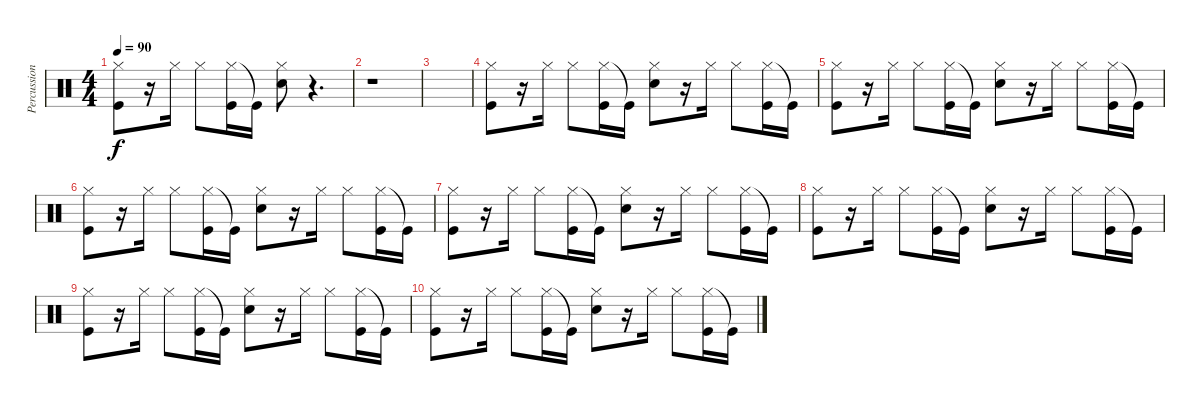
\track ("Percussion" "Percussion") {instrument percussion}
\staff {score}
\articulation defaults
\ts (4 4)
\tempo 90
\clef neutral
\ks c
("Kick (hit)" "Hi-Hat (closed)").8{dy f} r.16 "Hi-Hat (closed)".16 "Hi-Hat (closed)".8 ("Hi-Hat (closed)" "Kick (hit)").16 "Kick (hit)"{t}.16 ("Hi-Hat (closed)" "Hand Clap (hit)").8 r.4{d} |
r.1 |
|
("Hi-Hat (closed)" "Kick (hit)").8 r.16 "Hi-Hat (closed)".16 "Hi-Hat (closed)".8 ("Hi-Hat (closed)" "Kick (hit)").16 "Kick (hit)"{t}.16 ("Hi-Hat (closed)" "Hand Clap (hit)").8 r.16 "Hi-Hat (closed)".16 "Hi-Hat (closed)".8 ("Hi-Hat (closed)" "Kick (hit)").16 "Kick (hit)"{t}.16 |
("Kick (hit)" "Hi-Hat (closed)").8 r.16 "Hi-Hat (closed)".16 "Hi-Hat (closed)".8 ("Hi-Hat (closed)" "Kick (hit)").16 "Kick (hit)"{t}.16 ("Hi-Hat (closed)" "Hand Clap (hit)").8 r.16 "Hi-Hat (closed)".16 "Hi-Hat (closed)".8 ("Hi-Hat (closed)" "Kick (hit)").16 "Kick (hit)"{t}.16 |
("Kick (hit)" "Hi-Hat (closed)").8 r.16 "Hi-Hat (closed)".16 "Hi-Hat (closed)".8 ("Hi-Hat (closed)" "Kick (hit)").16 "Kick (hit)"{t}.16 ("Hi-Hat (closed)" "Hand Clap (hit)").8 r.16 "Hi-Hat (closed)".16 "Hi-Hat (closed)".8 ("Hi-Hat (closed)" "Kick (hit)").16 "Kick (hit)"{t}.16 |
("Hi-Hat (closed)" "Kick (hit)").8 r.16 "Hi-Hat (closed)".16 "Hi-Hat (closed)".8 ("Hi-Hat (closed)" "Kick (hit)").16 "Kick (hit)"{t}.16 ("Hi-Hat (closed)" "Hand Clap (hit)").8 r.16 "Hi-Hat (closed)".16 "Hi-Hat (closed)".8 ("Hi-Hat (closed)" "Kick (hit)").16 "Kick (hit)"{t}.16 |
("Kick (hit)" "Hi-Hat (closed)").8 r.16 "Hi-Hat (closed)".16 "Hi-Hat (closed)".8 ("Hi-Hat (closed)" "Kick (hit)").16 "Kick (hit)"{t}.16 ("Hi-Hat (closed)" "Hand Clap (hit)").8 r.16 "Hi-Hat (closed)".16 "Hi-Hat (closed)".8 ("Hi-Hat (closed)" "Kick (hit)").16 "Kick (hit)"{t}.16 |
("Hi-Hat (closed)" "Kick (hit)").8 r.16 "Hi-Hat (closed)".16 "Hi-Hat (closed)".8 ("Hi-Hat (closed)" "Kick (hit)").16 "Kick (hit)"{t}.16 ("Hi-Hat (closed)" "Hand Clap (hit)").8 r.16 "Hi-Hat (closed)".16 "Hi-Hat (closed)".8 ("Hi-Hat (closed)" "Kick (hit)").16 "Kick (hit)"{t}.16 |
("Kick (hit)" "Hi-Hat (closed)").8 r.16 "Hi-Hat (closed)".16 "Hi-Hat (closed)".8 ("Hi-Hat (closed)" "Kick (hit)").16 "Kick (hit)"{t}.16 ("Hi-Hat (closed)" "Hand Clap (hit)").8 r.16 "Hi-Hat (closed)".16 "Hi-Hat (closed)".8 ("Hi-Hat (closed)" "Kick (hit)").16 "Kick (hit)"{t}.16
